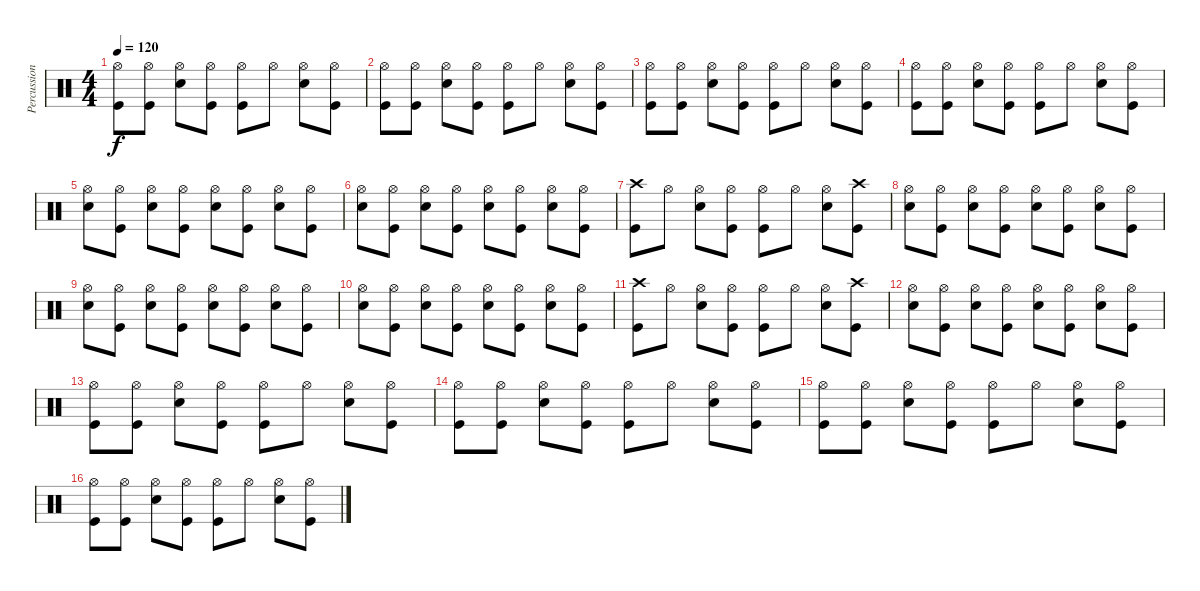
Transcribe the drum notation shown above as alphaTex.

\track ("Percussion" "Percussion") {instrument percussion}
\staff {score}
\articulation defaults
\ts (4 4)
\tempo 120
\clef neutral
\ks c
("Hi-Hat (open)" "Kick (hit)").8{dy f} ("Hi-Hat (open)" "Kick (hit)").8 ("Hi-Hat (open)" "Snare (hit) 2").8 ("Hi-Hat (open)" "Kick (hit)").8 ("Hi-Hat (open)" "Kick (hit)").8 "Hi-Hat (open)".8 ("Snare (hit) 2" "Hi-Hat (open)").8 ("Hi-Hat (open)" "Kick (hit)").8 |
("Hi-Hat (open)" "Kick (hit)").8 ("Hi-Hat (open)" "Kick (hit)").8 ("Hi-Hat (open)" "Snare (hit) 2").8 ("Hi-Hat (open)" "Kick (hit)").8 ("Hi-Hat (open)" "Kick (hit)").8 "Hi-Hat (open)".8 ("Snare (hit) 2" "Hi-Hat (open)").8 ("Hi-Hat (open)" "Kick (hit)").8 |
("Hi-Hat (open)" "Kick (hit)").8 ("Hi-Hat (open)" "Kick (hit)").8 ("Hi-Hat (open)" "Snare (hit) 2").8 ("Hi-Hat (open)" "Kick (hit)").8 ("Hi-Hat (open)" "Kick (hit)").8 "Hi-Hat (open)".8 ("Snare (hit) 2" "Hi-Hat (open)").8 ("Hi-Hat (open)" "Kick (hit)").8 |
("Hi-Hat (open)" "Kick (hit)").8 ("Hi-Hat (open)" "Kick (hit)").8 ("Hi-Hat (open)" "Snare (hit) 2").8 ("Hi-Hat (open)" "Kick (hit)").8 ("Hi-Hat (open)" "Kick (hit)").8 "Hi-Hat (open)".8 ("Snare (hit) 2" "Hi-Hat (open)").8 ("Hi-Hat (open)" "Kick (hit)").8 |
("Hi-Hat (open)" "Snare (hit) 2").8 ("Hi-Hat (open)" "Kick (hit)").8 ("Hi-Hat (open)" "Snare (hit) 2").8 ("Hi-Hat (open)" "Kick (hit)").8 ("Hi-Hat (open)" "Snare (hit) 2").8 ("Hi-Hat (open)" "Kick (hit)").8 ("Hi-Hat (open)" "Snare (hit) 2").8 ("Hi-Hat (open)" "Kick (hit)").8 |
("Hi-Hat (open)" "Snare (hit) 2").8 ("Hi-Hat (open)" "Kick (hit)").8 ("Hi-Hat (open)" "Snare (hit) 2").8 ("Hi-Hat (open)" "Kick (hit)").8 ("Hi-Hat (open)" "Snare (hit) 2").8 ("Hi-Hat (open)" "Kick (hit)").8 ("Hi-Hat (open)" "Snare (hit) 2").8 ("Hi-Hat (open)" "Kick (hit)").8 |
("Crash high (hit)" "Kick (hit)").8 "Hi-Hat (open)".8 ("Hi-Hat (open)" "Snare (hit) 2").8 ("Hi-Hat (open)" "Kick (hit)").8 ("Hi-Hat (open)" "Kick (hit)").8 "Hi-Hat (open)".8 ("Hi-Hat (open)" "Snare (hit) 2").8 ("Crash high (hit)" "Kick (hit)").8 |
("Hi-Hat (open)" "Snare (hit) 2").8 ("Hi-Hat (open)" "Kick (hit)").8 ("Hi-Hat (open)" "Snare (hit) 2").8 ("Hi-Hat (open)" "Kick (hit)").8 ("Hi-Hat (open)" "Snare (hit) 2").8 ("Hi-Hat (open)" "Kick (hit)").8 ("Hi-Hat (open)" "Snare (hit) 2").8 ("Hi-Hat (open)" "Kick (hit)").8 |
("Hi-Hat (open)" "Snare (hit) 2").8 ("Hi-Hat (open)" "Kick (hit)").8 ("Hi-Hat (open)" "Snare (hit) 2").8 ("Hi-Hat (open)" "Kick (hit)").8 ("Hi-Hat (open)" "Snare (hit) 2").8 ("Hi-Hat (open)" "Kick (hit)").8 ("Hi-Hat (open)" "Snare (hit) 2").8 ("Hi-Hat (open)" "Kick (hit)").8 |
("Hi-Hat (open)" "Snare (hit) 2").8 ("Hi-Hat (open)" "Kick (hit)").8 ("Hi-Hat (open)" "Snare (hit) 2").8 ("Hi-Hat (open)" "Kick (hit)").8 ("Hi-Hat (open)" "Snare (hit) 2").8 ("Hi-Hat (open)" "Kick (hit)").8 ("Hi-Hat (open)" "Snare (hit) 2").8 ("Hi-Hat (open)" "Kick (hit)").8 |
("Crash high (hit)" "Kick (hit)").8 "Hi-Hat (open)".8 ("Hi-Hat (open)" "Snare (hit) 2").8 ("Hi-Hat (open)" "Kick (hit)").8 ("Hi-Hat (open)" "Kick (hit)").8 "Hi-Hat (open)".8 ("Hi-Hat (open)" "Snare (hit) 2").8 ("Crash high (hit)" "Kick (hit)").8 |
("Hi-Hat (open)" "Snare (hit) 2").8 ("Hi-Hat (open)" "Kick (hit)").8 ("Hi-Hat (open)" "Snare (hit) 2").8 ("Hi-Hat (open)" "Kick (hit)").8 ("Hi-Hat (open)" "Snare (hit) 2").8 ("Hi-Hat (open)" "Kick (hit)").8 ("Hi-Hat (open)" "Snare (hit) 2").8 ("Hi-Hat (open)" "Kick (hit)").8 |
("Hi-Hat (open)" "Kick (hit)").8 ("Hi-Hat (open)" "Kick (hit)").8 ("Hi-Hat (open)" "Snare (hit) 2").8 ("Hi-Hat (open)" "Kick (hit)").8 ("Hi-Hat (open)" "Kick (hit)").8 "Hi-Hat (open)".8 ("Snare (hit) 2" "Hi-Hat (open)").8 ("Hi-Hat (open)" "Kick (hit)").8 |
("Hi-Hat (open)" "Kick (hit)").8 ("Hi-Hat (open)" "Kick (hit)").8 ("Hi-Hat (open)" "Snare (hit) 2").8 ("Hi-Hat (open)" "Kick (hit)").8 ("Hi-Hat (open)" "Kick (hit)").8 "Hi-Hat (open)".8 ("Snare (hit) 2" "Hi-Hat (open)").8 ("Hi-Hat (open)" "Kick (hit)").8 |
("Hi-Hat (open)" "Kick (hit)").8 ("Hi-Hat (open)" "Kick (hit)").8 ("Hi-Hat (open)" "Snare (hit) 2").8 ("Hi-Hat (open)" "Kick (hit)").8 ("Hi-Hat (open)" "Kick (hit)").8 "Hi-Hat (open)".8 ("Snare (hit) 2" "Hi-Hat (open)").8 ("Hi-Hat (open)" "Kick (hit)").8 |
("Hi-Hat (open)" "Kick (hit)").8 ("Hi-Hat (open)" "Kick (hit)").8 ("Hi-Hat (open)" "Snare (hit) 2").8 ("Hi-Hat (open)" "Kick (hit)").8 ("Hi-Hat (open)" "Kick (hit)").8 "Hi-Hat (open)".8 ("Snare (hit) 2" "Hi-Hat (open)").8 ("Hi-Hat (open)" "Kick (hit)").8
